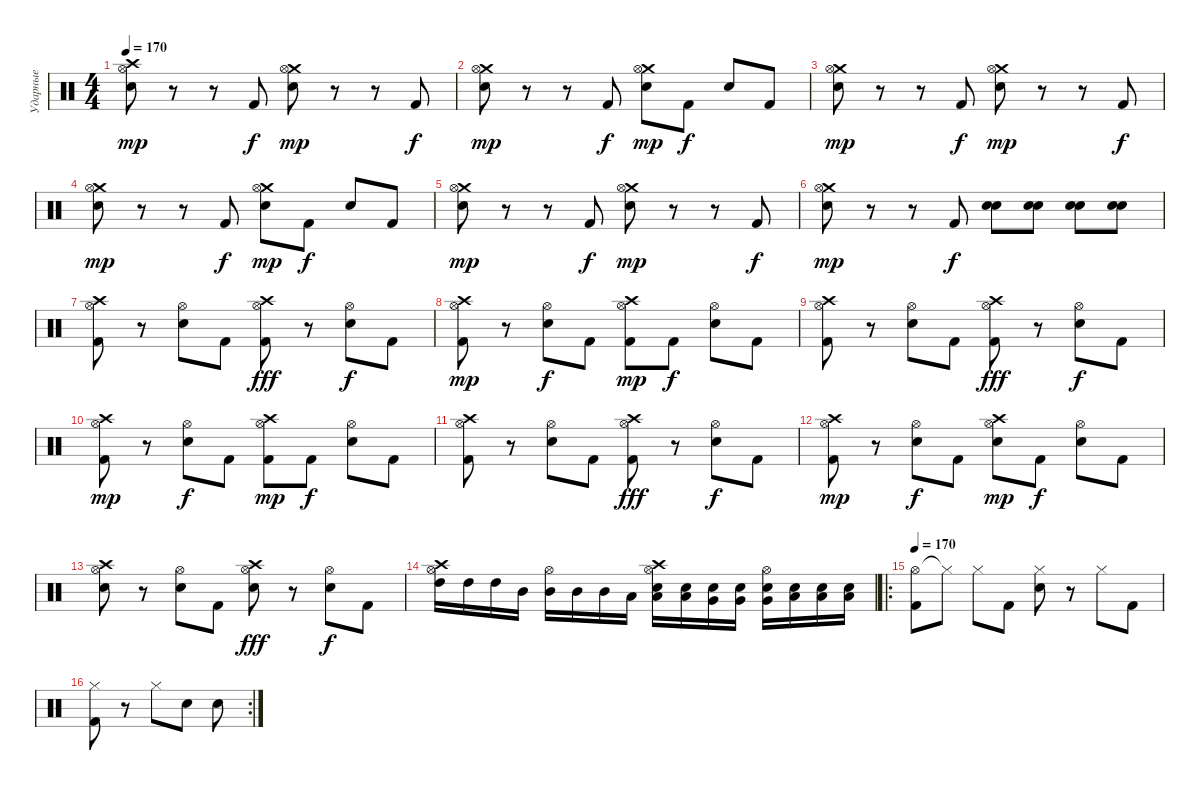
\track ("Ударные" "Ударные") {instrument percussion}
\staff {score}
\articulation defaults
\ts (4 4)
\tempo 170
\clef neutral
\ks c
("Crash high (hit)" "Hi-Hat (open)" "Snare (hit) 2").8{dy mp} r.8 r.8 "Kick (hit) 2".8{dy f} ("Crash medium (hit)" "Hi-Hat (open)" "Electric Snare (hit)").8{dy mp} r.8 r.8 "Kick (hit) 2".8{dy f} |
("Crash medium (hit)" "Hi-Hat (open)" "Snare (hit) 2").8{dy mp} r.8 r.8 "Kick (hit) 2".8{dy f} ("Crash medium (hit)" "Hi-Hat (open)" "Electric Snare (hit)").8{dy mp} "Kick (hit) 2".8{dy f} "Electric Snare (hit)".8 "Kick (hit) 2".8 |
("Crash medium (hit)" "Hi-Hat (open)" "Snare (hit) 2").8{dy mp} r.8 r.8 "Kick (hit) 2".8{dy f} ("Crash medium (hit)" "Hi-Hat (open)" "Electric Snare (hit)").8{dy mp} r.8 r.8 "Kick (hit) 2".8{dy f} |
("Crash medium (hit)" "Hi-Hat (open)" "Snare (hit) 2").8{dy mp} r.8 r.8 "Kick (hit) 2".8{dy f} ("Crash medium (hit)" "Hi-Hat (open)" "Electric Snare (hit)").8{dy mp} "Kick (hit) 2".8{dy f} "Electric Snare (hit)".8 "Kick (hit) 2".8 |
("Crash medium (hit)" "Hi-Hat (open)" "Snare (hit) 2").8{dy mp} r.8 r.8 "Kick (hit) 2".8{dy f} ("Crash medium (hit)" "Hi-Hat (open)" "Electric Snare (hit)").8{dy mp} r.8 r.8 "Kick (hit) 2".8{dy f} |
("Crash medium (hit)" "Hi-Hat (open)" "Snare (hit) 2").8{dy mp} r.8 r.8 "Kick (hit) 2".8{dy f} ("Snare (hit) 2" "Electric Snare (hit)").8 ("Snare (hit) 2" "Electric Snare (hit)").8 ("Snare (hit) 2" "Electric Snare (hit)").8 ("Snare (hit) 2" "Electric Snare (hit)").8 |
("Crash high (hit)" "Hi-Hat (open)" "Kick (hit) 2").8 r.8 ("Hi-Hat (open)" "Electric Snare (hit)").8 "Kick (hit) 2".8 ("Crash high (hit)" "Hi-Hat (open)" "Kick (hit) 2").8{dy fff} r.8 ("Hi-Hat (open)" "Electric Snare (hit)").8{dy f} "Kick (hit) 2".8 |
("Crash high (hit)" "Hi-Hat (open)" "Kick (hit) 2").8{dy mp} r.8 ("Hi-Hat (open)" "Electric Snare (hit)").8{dy f} "Kick (hit) 2".8 ("Crash high (hit)" "Hi-Hat (open)" "Kick (hit) 2").8{dy mp} "Kick (hit) 2".8{dy f} ("Hi-Hat (open)" "Electric Snare (hit)").8 "Kick (hit) 2".8 |
("Crash high (hit)" "Hi-Hat (open)" "Kick (hit) 2").8 r.8 ("Hi-Hat (open)" "Electric Snare (hit)").8 "Kick (hit) 2".8 ("Crash high (hit)" "Hi-Hat (open)" "Kick (hit) 2").8{dy fff} r.8 ("Hi-Hat (open)" "Electric Snare (hit)").8{dy f} "Kick (hit) 2".8 |
("Crash high (hit)" "Hi-Hat (open)" "Kick (hit) 2").8{dy mp} r.8 ("Hi-Hat (open)" "Electric Snare (hit)").8{dy f} "Kick (hit) 2".8 ("Crash high (hit)" "Hi-Hat (open)" "Kick (hit) 2").8{dy mp} "Kick (hit) 2".8{dy f} ("Hi-Hat (open)" "Electric Snare (hit)").8 "Kick (hit) 2".8 |
("Crash high (hit)" "Hi-Hat (open)" "Kick (hit) 2").8 r.8 ("Hi-Hat (open)" "Electric Snare (hit)").8 "Kick (hit) 2".8 ("Crash high (hit)" "Hi-Hat (open)" "Kick (hit) 2").8{dy fff} r.8 ("Hi-Hat (open)" "Electric Snare (hit)").8{dy f} "Kick (hit) 2".8 |
("Crash high (hit)" "Hi-Hat (open)" "Kick (hit) 2").8{dy mp} r.8 ("Hi-Hat (open)" "Electric Snare (hit)").8{dy f} "Kick (hit) 2".8 ("Crash high (hit)" "Hi-Hat (open)" "Electric Snare (hit)").8{dy mp} "Kick (hit) 2".8{dy f} ("Hi-Hat (open)" "Electric Snare (hit)").8 "Kick (hit) 2".8 |
("Crash high (hit)" "Hi-Hat (open)" "Electric Snare (hit)").8 r.8 ("Hi-Hat (open)" "Electric Snare (hit)").8 "Kick (hit) 2".8 ("Crash high (hit)" "Hi-Hat (open)" "Electric Snare (hit)").8{dy fff} r.8 ("Hi-Hat (open)" "Electric Snare (hit)").8{dy f} "Kick (hit) 2".8 |
("Crash high (hit)" "Hi-Hat (open)" "High Tom (hit)").16 "High Tom (hit)".16 "High Tom (hit)".16 "Mid Tom (hit)".16 ("Hi-Hat (open)" "Mid Tom (hit)").16 "Mid Tom (hit)".16 "Mid Tom (hit)".16 "Low Tom (hit)".16 ("Crash high (hit)" "Hi-Hat (open)" "Low Tom (hit)" "Snare (hit) 2").16 ("Low Tom (hit)" "Snare (hit) 2").16 ("Very Low Tom (hit)" "Snare (hit) 2").16 ("Very Low Tom (hit)" "Snare (hit) 2").16 ("Hi-Hat (open)" "Very Low Tom (hit)" "Snare (hit) 2").16 ("Low Floor Tom (hit)" "Snare (hit) 2").16 ("Low Floor Tom (hit)" "Snare (hit) 2").16 ("Low Floor Tom (hit)" "Snare (hit) 2").16 |
\ro
\tempo 170
("Hi-Hat (open)" "Kick (hit) 2").8 "Hi-Hat (closed)"{t}.8 "Hi-Hat (closed)".8 "Kick (hit) 2".8 ("Hi-Hat (closed)" "Electric Snare (hit)").8 r.8 "Hi-Hat (closed)".8 "Kick (hit) 2".8 |
\rc 2
("Hi-Hat (closed)" "Kick (hit) 2").8 r.8 "Hi-Hat (closed)".8 "Electric Snare (hit)".8 "Electric Snare (hit)".8
